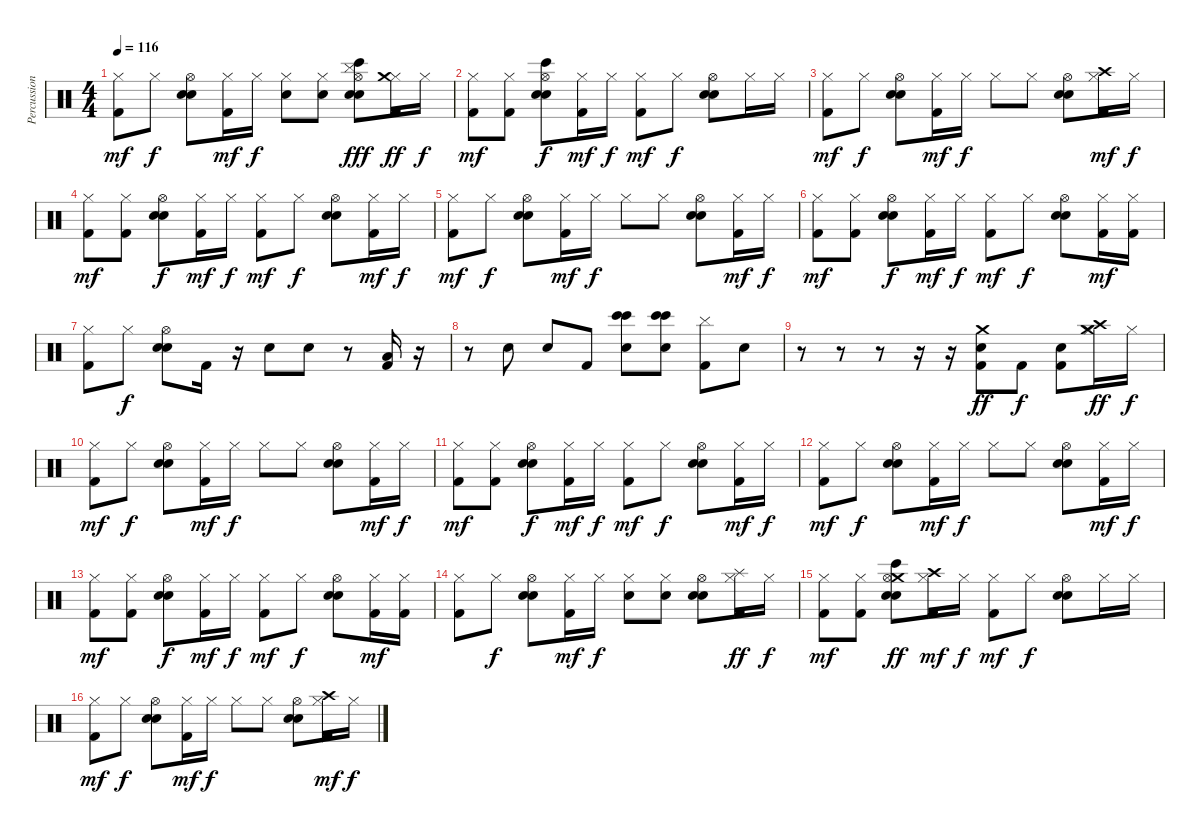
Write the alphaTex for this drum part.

\track ("Percussion" "Percussion") {instrument percussion}
\staff {score}
\articulation defaults
\ts (4 4)
\tempo 116
\clef neutral
\ks c
("Hi-Hat (closed)" "Kick (hit) 2").8{dy mf} "Hi-Hat (closed)".8{dy f} ("Hi-Hat (open)" "Electric Snare (hit)" "Hand Clap (hit)").8 ("Hi-Hat (closed)" "Kick (hit) 2").16{dy mf} "Hi-Hat (closed)".16{dy f} ("Hi-Hat (closed)" "Electric Snare (hit)").8 ("Hi-Hat (closed)" "Electric Snare (hit)").8 ("Hi-Hat (open)" "Electric Snare (hit)" "Hand Clap (hit)" "Bongo High (hit)" "Cymbal (hit)").8{dy fff} ("Hi-Hat (closed)" "Kick (hit) 2" "Crash medium (hit)").16{dy ff} "Hi-Hat (closed)".16{dy f} |
("Hi-Hat (closed)" "Kick (hit) 2").8{dy mf} ("Hi-Hat (closed)" "Kick (hit) 2").8 ("Hi-Hat (open)" "Electric Snare (hit)" "Hand Clap (hit)" "Bongo High (hit)").8{dy f} ("Hi-Hat (closed)" "Kick (hit) 2").16{dy mf} "Hi-Hat (closed)".16{dy f} ("Hi-Hat (closed)" "Kick (hit) 2").8{dy mf} "Hi-Hat (closed)".8{dy f} ("Hi-Hat (open)" "Electric Snare (hit)" "Hand Clap (hit)").8 "Hi-Hat (closed)".16 "Hi-Hat (closed)".16 |
("Hi-Hat (closed)" "Kick (hit) 2").8{dy mf} "Hi-Hat (closed)".8{dy f} ("Hi-Hat (open)" "Electric Snare (hit)" "Hand Clap (hit)").8 ("Hi-Hat (closed)" "Kick (hit) 2").16{dy mf} "Hi-Hat (closed)".16{dy f} "Hi-Hat (closed)".8 "Hi-Hat (closed)".8 ("Hi-Hat (open)" "Electric Snare (hit)" "Hand Clap (hit)").8 ("Hi-Hat (closed)" "Kick (hit) 2" "Crash high (hit)").16{dy mf} "Hi-Hat (closed)".16{dy f} |
("Hi-Hat (closed)" "Kick (hit) 2").8{dy mf} ("Hi-Hat (closed)" "Kick (hit) 2").8 ("Hi-Hat (open)" "Electric Snare (hit)" "Hand Clap (hit)").8{dy f} ("Hi-Hat (closed)" "Kick (hit) 2").16{dy mf} "Hi-Hat (closed)".16{dy f} ("Hi-Hat (closed)" "Kick (hit) 2").8{dy mf} "Hi-Hat (closed)".8{dy f} ("Hi-Hat (open)" "Electric Snare (hit)" "Hand Clap (hit)").8 ("Hi-Hat (closed)" "Kick (hit) 2").16{dy mf} "Hi-Hat (closed)".16{dy f} |
("Hi-Hat (closed)" "Kick (hit) 2").8{dy mf} "Hi-Hat (closed)".8{dy f} ("Hi-Hat (open)" "Electric Snare (hit)" "Hand Clap (hit)").8 ("Hi-Hat (closed)" "Kick (hit) 2").16{dy mf} "Hi-Hat (closed)".16{dy f} "Hi-Hat (closed)".8 "Hi-Hat (closed)".8 ("Hi-Hat (open)" "Electric Snare (hit)" "Hand Clap (hit)").8 ("Hi-Hat (closed)" "Kick (hit) 2").16{dy mf} "Hi-Hat (closed)".16{dy f} |
("Hi-Hat (closed)" "Kick (hit) 2").8{dy mf} ("Hi-Hat (closed)" "Kick (hit) 2").8 ("Hi-Hat (open)" "Electric Snare (hit)" "Hand Clap (hit)").8{dy f} ("Hi-Hat (closed)" "Kick (hit) 2").16{dy mf} "Hi-Hat (closed)".16{dy f} ("Hi-Hat (closed)" "Kick (hit) 2").8{dy mf} "Hi-Hat (closed)".8{dy f} ("Hi-Hat (open)" "Electric Snare (hit)" "Hand Clap (hit)").8 ("Hi-Hat (closed)" "Kick (hit) 2").16{dy mf} ("Hi-Hat (closed)" "Kick (hit) 2").16 |
("Hi-Hat (closed)" "Kick (hit) 2").8 "Hi-Hat (closed)".8{dy f} ("Hi-Hat (open)" "Electric Snare (hit)" "Hand Clap (hit)").8 "Kick (hit) 2".16 r.16 "Electric Snare (hit)".8 "Electric Snare (hit)".8 r.8 ("Kick (hit) 2" "Low Floor Tom (hit)").16 r.16 |
r.8 "Electric Snare (hit)".8 "Electric Snare (hit)".8 "Kick (hit) 2".8 ("Electric Snare (hit)" "Bongo High (hit)" "Bongo High (hit)").8 ("Electric Snare (hit)" "Bongo High (hit)" "Bongo High (hit)").8 ("Kick (hit) 2" "Cymbal (hit)").8 "Electric Snare (hit)".8 |
r.8 r.8 r.8 r.16 r.16 ("Crash medium (hit)" "Electric Snare (hit)" "Kick (hit) 2").8{dy ff} "Kick (hit) 2".8{dy f} ("Electric Snare (hit)" "Kick (hit) 2").8 ("Hi-Hat (closed)" "Crash high (hit)" "Crash medium (hit)").16{dy ff} "Hi-Hat (closed)".16{dy f} |
("Hi-Hat (closed)" "Kick (hit) 2").8{dy mf} "Hi-Hat (closed)".8{dy f} ("Hi-Hat (open)" "Electric Snare (hit)" "Hand Clap (hit)").8 ("Hi-Hat (closed)" "Kick (hit) 2").16{dy mf} "Hi-Hat (closed)".16{dy f} "Hi-Hat (closed)".8 "Hi-Hat (closed)".8 ("Hi-Hat (open)" "Electric Snare (hit)" "Hand Clap (hit)").8 ("Hi-Hat (closed)" "Kick (hit) 2").16{dy mf} "Hi-Hat (closed)".16{dy f} |
("Hi-Hat (closed)" "Kick (hit) 2").8{dy mf} ("Hi-Hat (closed)" "Kick (hit) 2").8 ("Hi-Hat (open)" "Electric Snare (hit)" "Hand Clap (hit)").8{dy f} ("Hi-Hat (closed)" "Kick (hit) 2").16{dy mf} "Hi-Hat (closed)".16{dy f} ("Hi-Hat (closed)" "Kick (hit) 2").8{dy mf} "Hi-Hat (closed)".8{dy f} ("Hi-Hat (open)" "Electric Snare (hit)" "Hand Clap (hit)").8 ("Hi-Hat (closed)" "Kick (hit) 2").16{dy mf} "Hi-Hat (closed)".16{dy f} |
("Hi-Hat (closed)" "Kick (hit) 2").8{dy mf} "Hi-Hat (closed)".8{dy f} ("Hi-Hat (open)" "Electric Snare (hit)" "Hand Clap (hit)").8 ("Hi-Hat (closed)" "Kick (hit) 2").16{dy mf} "Hi-Hat (closed)".16{dy f} "Hi-Hat (closed)".8 "Hi-Hat (closed)".8 ("Hi-Hat (open)" "Electric Snare (hit)" "Hand Clap (hit)").8 ("Hi-Hat (closed)" "Kick (hit) 2").16{dy mf} "Hi-Hat (closed)".16{dy f} |
("Hi-Hat (closed)" "Kick (hit) 2").8{dy mf} ("Hi-Hat (closed)" "Kick (hit) 2").8 ("Hi-Hat (open)" "Electric Snare (hit)" "Hand Clap (hit)").8{dy f} ("Hi-Hat (closed)" "Kick (hit) 2").16{dy mf} "Hi-Hat (closed)".16{dy f} ("Hi-Hat (closed)" "Kick (hit) 2").8{dy mf} "Hi-Hat (closed)".8{dy f} ("Hi-Hat (open)" "Electric Snare (hit)" "Hand Clap (hit)").8 ("Hi-Hat (closed)" "Kick (hit) 2").16{dy mf} ("Hi-Hat (closed)" "Kick (hit) 2").16 |
("Hi-Hat (closed)" "Kick (hit) 2").8 "Hi-Hat (closed)".8{dy f} ("Hi-Hat (open)" "Electric Snare (hit)" "Hand Clap (hit)").8 ("Hi-Hat (closed)" "Kick (hit) 2").16{dy mf} "Hi-Hat (closed)".16{dy f} ("Hi-Hat (closed)" "Electric Snare (hit)").8 ("Hi-Hat (closed)" "Electric Snare (hit)").8 ("Hi-Hat (open)" "Electric Snare (hit)" "Hand Clap (hit)").8 ("Hi-Hat (closed)" "Kick (hit) 2" "Splash (hit)").16{dy ff} "Hi-Hat (closed)".16{dy f} |
("Hi-Hat (closed)" "Kick (hit) 2").8{dy mf} ("Hi-Hat (closed)" "Kick (hit) 2").8 ("Crash medium (hit)" "Hi-Hat (open)" "Electric Snare (hit)" "Hand Clap (hit)" "Bongo High (hit)").8{dy ff} ("Crash high (hit)" "Hi-Hat (closed)" "Kick (hit) 2").16{dy mf} "Hi-Hat (closed)".16{dy f} ("Hi-Hat (closed)" "Kick (hit) 2").8{dy mf} "Hi-Hat (closed)".8{dy f} ("Hi-Hat (open)" "Electric Snare (hit)" "Hand Clap (hit)").8 "Hi-Hat (closed)".16 "Hi-Hat (closed)".16 |
("Hi-Hat (closed)" "Kick (hit) 2").8{dy mf} "Hi-Hat (closed)".8{dy f} ("Hi-Hat (open)" "Electric Snare (hit)" "Hand Clap (hit)").8 ("Hi-Hat (closed)" "Kick (hit) 2").16{dy mf} "Hi-Hat (closed)".16{dy f} "Hi-Hat (closed)".8 "Hi-Hat (closed)".8 ("Hi-Hat (open)" "Electric Snare (hit)" "Hand Clap (hit)").8 ("Hi-Hat (closed)" "Kick (hit) 2" "Crash high (hit)").16{dy mf} "Hi-Hat (closed)".16{dy f}
